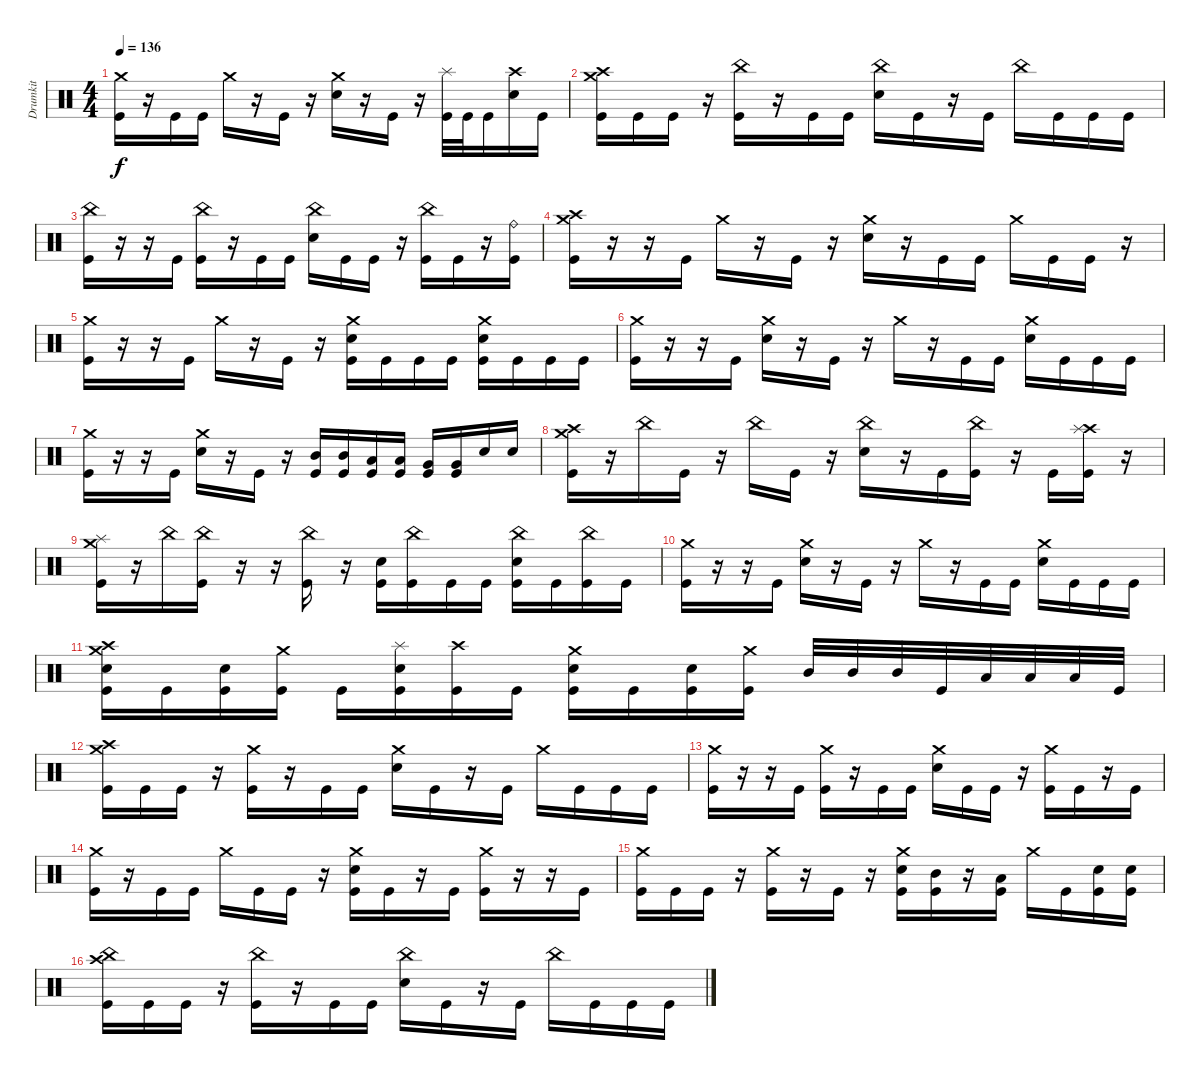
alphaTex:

\track ("Drumkit" "Drumkit") {instrument percussion}
\staff {score}
\articulation defaults
\ts (4 4)
\tempo 136
\clef neutral
\ks c
("Crash medium (hit)" "Kick (hit)").16{dy f} r.16 "Kick (hit)".16 "Kick (hit)".16 "Crash medium (hit)".16 r.16 "Kick (hit)".16 r.16 ("Crash medium (hit)" "Snare (hit) 2").16 r.16 "Kick (hit)".16 r.16 ("Splash (hit)" "Kick (hit)").32 "Kick (hit)".32 "Kick (hit)".16 ("Crash high (hit)" "Snare (hit) 2").16 "Kick (hit)".16 |
("Crash medium (hit)" "Crash high (hit)" "Kick (hit)").16 "Kick (hit)".16 "Kick (hit)".16 r.16 ("China (hit)" "Kick (hit)").16 r.16 "Kick (hit)".16 "Kick (hit)".16 ("China (hit)" "Snare (hit) 2").16 "Kick (hit)".16 r.16 "Kick (hit)".16 "China (hit)".16 "Kick (hit)".16 "Kick (hit)".16 "Kick (hit)".16 |
("China (hit)" "Kick (hit)").16 r.16 r.16 "Kick (hit)".16 ("China (hit)" "Kick (hit)").16 r.16 "Kick (hit)".16 "Kick (hit)".16 ("China (hit)" "Snare (hit) 2").16 "Kick (hit)".16 "Kick (hit)".16 r.16 ("China (hit)" "Kick (hit)").16 "Kick (hit)".16 r.16 ("Ride (bell)" "Kick (hit)").16 |
("Crash medium (hit)" "Crash high (hit)" "Kick (hit)").16 r.16 r.16 "Kick (hit)".16 "Crash medium (hit)".16 r.16 "Kick (hit)".16 r.16 ("Crash medium (hit)" "Snare (hit) 2").16 r.16 "Kick (hit)".16 "Kick (hit)".16 "Crash medium (hit)".16 "Kick (hit)".16 "Kick (hit)".16 r.16 |
("Crash medium (hit)" "Kick (hit)").16 r.16 r.16 "Kick (hit)".16 "Crash medium (hit)".16 r.16 "Kick (hit)".16 r.16 ("Crash medium (hit)" "Snare (hit) 2" "Kick (hit)").16 "Kick (hit)".16 "Kick (hit)".16 "Kick (hit)".16 ("Crash medium (hit)" "Snare (hit) 2" "Kick (hit)").16 "Kick (hit)".16 "Kick (hit)".16 "Kick (hit)".16 |
("Crash medium (hit)" "Kick (hit)").16 r.16 r.16 "Kick (hit)".16 ("Crash medium (hit)" "Snare (hit) 2").16 r.16 "Kick (hit)".16 r.16 "Crash medium (hit)".16 r.16 "Kick (hit)".16 "Kick (hit)".16 ("Crash medium (hit)" "Snare (hit) 2").16 "Kick (hit)".16 "Kick (hit)".16 "Kick (hit)".16 |
("Crash medium (hit)" "Kick (hit)").16 r.16 r.16 "Kick (hit)".16 ("Crash medium (hit)" "Snare (hit) 2").16 r.16 "Kick (hit)".16 r.16 ("Mid Tom (hit)" "Kick (hit)").16 ("Mid Tom (hit)" "Kick (hit)").16 ("Low Tom (hit)" "Kick (hit)").16 ("Low Tom (hit)" "Kick (hit)").16 ("Very Low Tom (hit)" "Kick (hit)").16 ("Very Low Tom (hit)" "Kick (hit)").16 "Snare (hit) 2".16 "Snare (hit) 2".16 |
("Crash medium (hit)" "Crash high (hit)" "Kick (hit)").16 r.16 "China (hit)".16 "Kick (hit)".16 r.16 "China (hit)".16 "Kick (hit)".16 r.16 ("China (hit)" "Snare (hit) 2").16 r.16 "Kick (hit)".16 ("China (hit)" "Kick (hit)").16 r.16 "Kick (hit)".16 ("Crash high (hit)" "Splash (hit)" "Kick (hit)").16 r.16 |
("Crash medium (hit)" "Splash (hit)" "Kick (hit)").16 r.16 "China (hit)".16 ("China (hit)" "Kick (hit)").16 r.16 r.16 ("China (hit)" "Kick (hit)").16 r.16 ("Snare (hit) 2" "Kick (hit)").16 ("China (hit)" "Kick (hit)").16 "Kick (hit)".16 "Kick (hit)".16 ("China (hit)" "Snare (hit) 2" "Kick (hit)").16 "Kick (hit)".16 ("China (hit)" "Kick (hit)").16 "Kick (hit)".16 |
("Crash medium (hit)" "Kick (hit)").16 r.16 r.16 "Kick (hit)".16 ("Crash medium (hit)" "Snare (hit) 2").16 r.16 "Kick (hit)".16 r.16 "Crash medium (hit)".16 r.16 "Kick (hit)".16 "Kick (hit)".16 ("Crash medium (hit)" "Snare (hit) 2").16 "Kick (hit)".16 "Kick (hit)".16 "Kick (hit)".16 |
("Crash medium (hit)" "Crash high (hit)" "Snare (hit) 2" "Kick (hit)").16 "Kick (hit)".16 ("Snare (hit) 2" "Kick (hit)").16 ("Crash medium (hit)" "Kick (hit)").16 "Kick (hit)".16 ("Splash (hit)" "Snare (hit) 2" "Kick (hit)").16 ("Crash high (hit)" "Kick (hit)").16 "Kick (hit)".16 ("Crash medium (hit)" "Snare (hit) 2" "Kick (hit)").16 "Kick (hit)".16 ("Snare (hit) 2" "Kick (hit)").16 ("Crash medium (hit)" "Kick (hit)").16 "Mid Tom (hit)".32 "Mid Tom (hit)".32 "Mid Tom (hit)".32 "Kick (hit)".32 "Low Tom (hit)".32 "Low Tom (hit)".32 "Low Tom (hit)".32 "Kick (hit)".32 |
("Crash medium (hit)" "Crash high (hit)" "Kick (hit)").16 "Kick (hit)".16 "Kick (hit)".16 r.16 ("Crash medium (hit)" "Kick (hit)").16 r.16 "Kick (hit)".16 "Kick (hit)".16 ("Crash medium (hit)" "Snare (hit) 2").16 "Kick (hit)".16 r.16 "Kick (hit)".16 "Crash medium (hit)".16 "Kick (hit)".16 "Kick (hit)".16 "Kick (hit)".16 |
("Crash medium (hit)" "Kick (hit)").16 r.16 r.16 "Kick (hit)".16 ("Crash medium (hit)" "Kick (hit)").16 r.16 "Kick (hit)".16 "Kick (hit)".16 ("Crash medium (hit)" "Snare (hit) 2").16 "Kick (hit)".16 "Kick (hit)".16 r.16 ("Crash medium (hit)" "Kick (hit)").16 "Kick (hit)".16 r.16 "Kick (hit)".16 |
("Crash medium (hit)" "Kick (hit)").16 r.16 "Kick (hit)".16 "Kick (hit)".16 "Crash medium (hit)".16 "Kick (hit)".16 "Kick (hit)".16 r.16 ("Crash medium (hit)" "Snare (hit) 2" "Kick (hit)").16 "Kick (hit)".16 r.16 "Kick (hit)".16 ("Crash medium (hit)" "Kick (hit)").16 r.16 r.16 "Kick (hit)".16 |
("Crash medium (hit)" "Kick (hit)").16 "Kick (hit)".16 "Kick (hit)".16 r.16 ("Crash medium (hit)" "Kick (hit)").16 r.16 "Kick (hit)".16 r.16 ("Crash medium (hit)" "Snare (hit) 2" "Kick (hit)").16 ("Mid Tom (hit)" "Kick (hit)").16 r.16 ("Low Tom (hit)" "Kick (hit)").16 "Crash medium (hit)".16 "Kick (hit)".16 ("Snare (hit) 2" "Kick (hit)").16 ("Snare (hit) 2" "Kick (hit)").16 |
("China (hit)" "Crash high (hit)" "Kick (hit)").16 "Kick (hit)".16 "Kick (hit)".16 r.16 ("China (hit)" "Kick (hit)").16 r.16 "Kick (hit)".16 "Kick (hit)".16 ("China (hit)" "Snare (hit) 2").16 "Kick (hit)".16 r.16 "Kick (hit)".16 "China (hit)".16 "Kick (hit)".16 "Kick (hit)".16 "Kick (hit)".16
